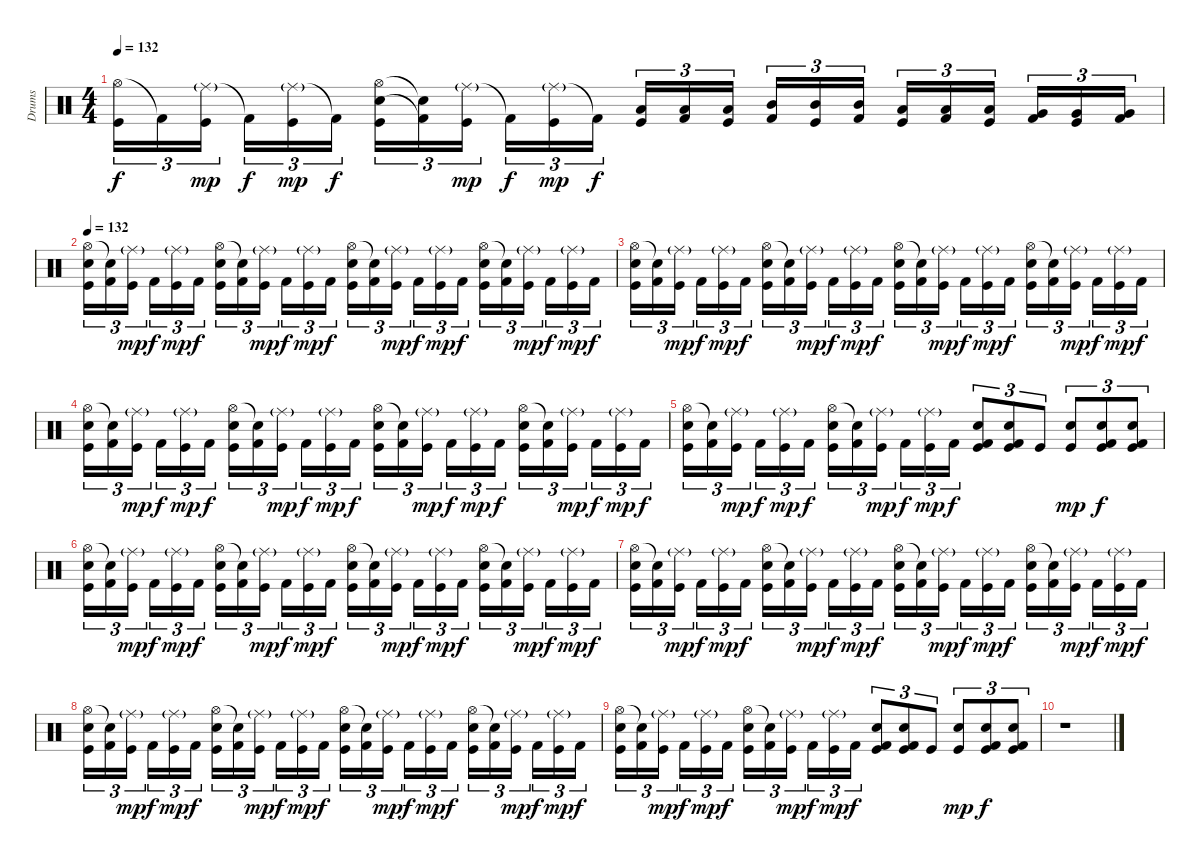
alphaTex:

\track ("Drums" "Drums") {instrument percussion}
\staff {score}
\articulation defaults
\ts (4 4)
\tempo 132
\clef neutral
\ks c
("Hi-Hat (open)" "Kick (hit)").16{tu (3 2) dy f} "Kick (hit) 2"{t}.16{tu (3 2)} ("Ride (middle)"{g} "Kick (hit)").16{tu (3 2) dy mp} "Kick (hit) 2"{t}.16{tu (3 2) dy f} ("Ride (middle)"{g} "Kick (hit)").16{tu (3 2) dy mp} "Kick (hit) 2"{t}.16{tu (3 2) dy f} ("Hi-Hat (open)" "Snare (hit) 2" "Kick (hit)").16{tu (3 2)} ("Snare (hit)"{t} "Kick (hit) 2"{t}).16{tu (3 2)} ("Ride (middle)"{g} "Kick (hit)").16{tu (3 2) dy mp} "Kick (hit) 2"{t}.16{tu (3 2) dy f} ("Ride (middle)"{g} "Kick (hit)").16{tu (3 2) dy mp} "Kick (hit) 2"{t}.16{tu (3 2) dy f} ("Low Floor Tom (hit)" "Kick (hit)").16{tu (3 2)} ("Low Floor Tom (hit)" "Kick (hit) 2").16{tu (3 2)} ("Low Floor Tom (hit)" "Kick (hit)").16{tu (3 2)} ("Mid Tom (hit)" "Kick (hit) 2").16{tu (3 2)} ("Mid Tom (hit)" "Kick (hit)").16{tu (3 2)} ("Mid Tom (hit)" "Kick (hit) 2").16{tu (3 2)} ("Low Tom (hit)" "Kick (hit)").16{tu (3 2)} ("Low Tom (hit)" "Kick (hit) 2").16{tu (3 2)} ("Low Tom (hit)" "Kick (hit)").16{tu (3 2)} ("Very Low Tom (hit)" "Kick (hit) 2").16{tu (3 2)} ("Very Low Tom (hit)" "Kick (hit)").16{tu (3 2)} ("Very Low Tom (hit)" "Kick (hit) 2").16{tu (3 2)} |
\tempo 132
("Hi-Hat (open)" "Snare (hit) 2" "Kick (hit)").16{tu (3 2)} ("Snare (hit)"{t} "Kick (hit) 2").16{tu (3 2)} ("Ride (middle)"{g} "Kick (hit)").16{tu (3 2) dy mp} "Kick (hit) 2".16{tu (3 2) dy f} ("Ride (middle)"{g} "Kick (hit)").16{tu (3 2) dy mp} "Kick (hit) 2".16{tu (3 2) dy f} ("Hi-Hat (open)" "Snare (hit) 2" "Kick (hit)").16{tu (3 2)} ("Snare (hit)"{t} "Kick (hit) 2").16{tu (3 2)} ("Ride (middle)"{g} "Kick (hit)").16{tu (3 2) dy mp} "Kick (hit) 2".16{tu (3 2) dy f} ("Ride (middle)"{g} "Kick (hit)").16{tu (3 2) dy mp} "Kick (hit) 2".16{tu (3 2) dy f} ("Hi-Hat (open)" "Snare (hit) 2" "Kick (hit)").16{tu (3 2)} ("Snare (hit)"{t} "Kick (hit) 2").16{tu (3 2)} ("Ride (middle)"{g} "Kick (hit)").16{tu (3 2) dy mp} "Kick (hit) 2".16{tu (3 2) dy f} ("Ride (middle)"{g} "Kick (hit)").16{tu (3 2) dy mp} "Kick (hit) 2".16{tu (3 2) dy f} ("Hi-Hat (open)" "Snare (hit) 2" "Kick (hit)").16{tu (3 2)} ("Snare (hit)"{t} "Kick (hit) 2").16{tu (3 2)} ("Ride (middle)"{g} "Kick (hit)").16{tu (3 2) dy mp} "Kick (hit) 2".16{tu (3 2) dy f} ("Ride (middle)"{g} "Kick (hit)").16{tu (3 2) dy mp} "Kick (hit) 2".16{tu (3 2) dy f} |
("Hi-Hat (open)" "Snare (hit) 2" "Kick (hit)").16{tu (3 2)} ("Snare (hit)"{t} "Kick (hit) 2").16{tu (3 2)} ("Ride (middle)"{g} "Kick (hit)").16{tu (3 2) dy mp} "Kick (hit) 2".16{tu (3 2) dy f} ("Ride (middle)"{g} "Kick (hit)").16{tu (3 2) dy mp} "Kick (hit) 2".16{tu (3 2) dy f} ("Hi-Hat (open)" "Snare (hit) 2" "Kick (hit)").16{tu (3 2)} ("Snare (hit)"{t} "Kick (hit) 2").16{tu (3 2)} ("Ride (middle)"{g} "Kick (hit)").16{tu (3 2) dy mp} "Kick (hit) 2".16{tu (3 2) dy f} ("Ride (middle)"{g} "Kick (hit)").16{tu (3 2) dy mp} "Kick (hit) 2".16{tu (3 2) dy f} ("Hi-Hat (open)" "Snare (hit) 2" "Kick (hit)").16{tu (3 2)} ("Snare (hit)"{t} "Kick (hit) 2").16{tu (3 2)} ("Ride (middle)"{g} "Kick (hit)").16{tu (3 2) dy mp} "Kick (hit) 2".16{tu (3 2) dy f} ("Ride (middle)"{g} "Kick (hit)").16{tu (3 2) dy mp} "Kick (hit) 2".16{tu (3 2) dy f} ("Hi-Hat (open)" "Snare (hit) 2" "Kick (hit)").16{tu (3 2)} ("Snare (hit)"{t} "Kick (hit) 2").16{tu (3 2)} ("Ride (middle)"{g} "Kick (hit)").16{tu (3 2) dy mp} "Kick (hit) 2".16{tu (3 2) dy f} ("Ride (middle)"{g} "Kick (hit)").16{tu (3 2) dy mp} "Kick (hit) 2".16{tu (3 2) dy f} |
("Hi-Hat (open)" "Snare (hit) 2" "Kick (hit)").16{tu (3 2)} ("Snare (hit)"{t} "Kick (hit) 2").16{tu (3 2)} ("Ride (middle)"{g} "Kick (hit)").16{tu (3 2) dy mp} "Kick (hit) 2".16{tu (3 2) dy f} ("Ride (middle)"{g} "Kick (hit)").16{tu (3 2) dy mp} "Kick (hit) 2".16{tu (3 2) dy f} ("Hi-Hat (open)" "Snare (hit) 2" "Kick (hit)").16{tu (3 2)} ("Snare (hit)"{t} "Kick (hit) 2").16{tu (3 2)} ("Ride (middle)"{g} "Kick (hit)").16{tu (3 2) dy mp} "Kick (hit) 2".16{tu (3 2) dy f} ("Ride (middle)"{g} "Kick (hit)").16{tu (3 2) dy mp} "Kick (hit) 2".16{tu (3 2) dy f} ("Hi-Hat (open)" "Snare (hit) 2" "Kick (hit)").16{tu (3 2)} ("Snare (hit)"{t} "Kick (hit) 2").16{tu (3 2)} ("Ride (middle)"{g} "Kick (hit)").16{tu (3 2) dy mp} "Kick (hit) 2".16{tu (3 2) dy f} ("Ride (middle)"{g} "Kick (hit)").16{tu (3 2) dy mp} "Kick (hit) 2".16{tu (3 2) dy f} ("Hi-Hat (open)" "Snare (hit) 2" "Kick (hit)").16{tu (3 2)} ("Snare (hit)"{t} "Kick (hit) 2").16{tu (3 2)} ("Ride (middle)"{g} "Kick (hit)").16{tu (3 2) dy mp} "Kick (hit) 2".16{tu (3 2) dy f} ("Ride (middle)"{g} "Kick (hit)").16{tu (3 2) dy mp} "Kick (hit) 2".16{tu (3 2) dy f} |
("Hi-Hat (open)" "Snare (hit) 2" "Kick (hit)").16{tu (3 2)} ("Snare (hit)"{t} "Kick (hit) 2").16{tu (3 2)} ("Ride (middle)"{g} "Kick (hit)").16{tu (3 2) dy mp} "Kick (hit) 2".16{tu (3 2) dy f} ("Ride (middle)"{g} "Kick (hit)").16{tu (3 2) dy mp} "Kick (hit) 2".16{tu (3 2) dy f} ("Hi-Hat (open)" "Snare (hit) 2" "Kick (hit)").16{tu (3 2)} ("Snare (hit)"{t} "Kick (hit) 2").16{tu (3 2)} ("Ride (middle)"{g} "Kick (hit)").16{tu (3 2) dy mp} "Kick (hit) 2".16{tu (3 2) dy f} ("Ride (middle)"{g} "Kick (hit)").16{tu (3 2) dy mp} "Kick (hit) 2".16{tu (3 2) dy f} ("Snare (hit) 2" "Kick (hit) 2" "Kick (hit)").8{tu (3 2)} ("Snare (hit) 2" "Kick (hit) 2" "Kick (hit)").8{tu (3 2)} "Kick (hit)".8{tu (3 2)} ("Snare (hit) 2" "Kick (hit)").8{tu (3 2) dy mp} ("Snare (hit) 2" "Kick (hit) 2" "Kick (hit)").8{tu (3 2) dy f} ("Snare (hit) 2" "Kick (hit) 2" "Kick (hit)").8{tu (3 2)} |
("Hi-Hat (open)" "Snare (hit) 2" "Kick (hit)").16{tu (3 2)} ("Snare (hit)"{t} "Kick (hit) 2").16{tu (3 2)} ("Ride (middle)"{g} "Kick (hit)").16{tu (3 2) dy mp} "Kick (hit) 2".16{tu (3 2) dy f} ("Ride (middle)"{g} "Kick (hit)").16{tu (3 2) dy mp} "Kick (hit) 2".16{tu (3 2) dy f} ("Hi-Hat (open)" "Snare (hit) 2" "Kick (hit)").16{tu (3 2)} ("Snare (hit)"{t} "Kick (hit) 2").16{tu (3 2)} ("Ride (middle)"{g} "Kick (hit)").16{tu (3 2) dy mp} "Kick (hit) 2".16{tu (3 2) dy f} ("Ride (middle)"{g} "Kick (hit)").16{tu (3 2) dy mp} "Kick (hit) 2".16{tu (3 2) dy f} ("Hi-Hat (open)" "Snare (hit) 2" "Kick (hit)").16{tu (3 2)} ("Snare (hit)"{t} "Kick (hit) 2").16{tu (3 2)} ("Ride (middle)"{g} "Kick (hit)").16{tu (3 2) dy mp} "Kick (hit) 2".16{tu (3 2) dy f} ("Ride (middle)"{g} "Kick (hit)").16{tu (3 2) dy mp} "Kick (hit) 2".16{tu (3 2) dy f} ("Hi-Hat (open)" "Snare (hit) 2" "Kick (hit)").16{tu (3 2)} ("Snare (hit)"{t} "Kick (hit) 2").16{tu (3 2)} ("Ride (middle)"{g} "Kick (hit)").16{tu (3 2) dy mp} "Kick (hit) 2".16{tu (3 2) dy f} ("Ride (middle)"{g} "Kick (hit)").16{tu (3 2) dy mp} "Kick (hit) 2".16{tu (3 2) dy f} |
("Hi-Hat (open)" "Snare (hit) 2" "Kick (hit)").16{tu (3 2)} ("Snare (hit)"{t} "Kick (hit) 2").16{tu (3 2)} ("Ride (middle)"{g} "Kick (hit)").16{tu (3 2) dy mp} "Kick (hit) 2".16{tu (3 2) dy f} ("Ride (middle)"{g} "Kick (hit)").16{tu (3 2) dy mp} "Kick (hit) 2".16{tu (3 2) dy f} ("Hi-Hat (open)" "Snare (hit) 2" "Kick (hit)").16{tu (3 2)} ("Snare (hit)"{t} "Kick (hit) 2").16{tu (3 2)} ("Ride (middle)"{g} "Kick (hit)").16{tu (3 2) dy mp} "Kick (hit) 2".16{tu (3 2) dy f} ("Ride (middle)"{g} "Kick (hit)").16{tu (3 2) dy mp} "Kick (hit) 2".16{tu (3 2) dy f} ("Hi-Hat (open)" "Snare (hit) 2" "Kick (hit)").16{tu (3 2)} ("Snare (hit)"{t} "Kick (hit) 2").16{tu (3 2)} ("Ride (middle)"{g} "Kick (hit)").16{tu (3 2) dy mp} "Kick (hit) 2".16{tu (3 2) dy f} ("Ride (middle)"{g} "Kick (hit)").16{tu (3 2) dy mp} "Kick (hit) 2".16{tu (3 2) dy f} ("Hi-Hat (open)" "Snare (hit) 2" "Kick (hit)").16{tu (3 2)} ("Snare (hit)"{t} "Kick (hit) 2").16{tu (3 2)} ("Ride (middle)"{g} "Kick (hit)").16{tu (3 2) dy mp} "Kick (hit) 2".16{tu (3 2) dy f} ("Ride (middle)"{g} "Kick (hit)").16{tu (3 2) dy mp} "Kick (hit) 2".16{tu (3 2) dy f} |
("Hi-Hat (open)" "Snare (hit) 2" "Kick (hit)").16{tu (3 2)} ("Snare (hit)"{t} "Kick (hit) 2").16{tu (3 2)} ("Ride (middle)"{g} "Kick (hit)").16{tu (3 2) dy mp} "Kick (hit) 2".16{tu (3 2) dy f} ("Ride (middle)"{g} "Kick (hit)").16{tu (3 2) dy mp} "Kick (hit) 2".16{tu (3 2) dy f} ("Hi-Hat (open)" "Snare (hit) 2" "Kick (hit)").16{tu (3 2)} ("Snare (hit)"{t} "Kick (hit) 2").16{tu (3 2)} ("Ride (middle)"{g} "Kick (hit)").16{tu (3 2) dy mp} "Kick (hit) 2".16{tu (3 2) dy f} ("Ride (middle)"{g} "Kick (hit)").16{tu (3 2) dy mp} "Kick (hit) 2".16{tu (3 2) dy f} ("Hi-Hat (open)" "Snare (hit) 2" "Kick (hit)").16{tu (3 2)} ("Snare (hit)"{t} "Kick (hit) 2").16{tu (3 2)} ("Ride (middle)"{g} "Kick (hit)").16{tu (3 2) dy mp} "Kick (hit) 2".16{tu (3 2) dy f} ("Ride (middle)"{g} "Kick (hit)").16{tu (3 2) dy mp} "Kick (hit) 2".16{tu (3 2) dy f} ("Hi-Hat (open)" "Snare (hit) 2" "Kick (hit)").16{tu (3 2)} ("Snare (hit)"{t} "Kick (hit) 2").16{tu (3 2)} ("Ride (middle)"{g} "Kick (hit)").16{tu (3 2) dy mp} "Kick (hit) 2".16{tu (3 2) dy f} ("Ride (middle)"{g} "Kick (hit)").16{tu (3 2) dy mp} "Kick (hit) 2".16{tu (3 2) dy f} |
("Hi-Hat (open)" "Snare (hit) 2" "Kick (hit)").16{tu (3 2)} ("Snare (hit)"{t} "Kick (hit) 2").16{tu (3 2)} ("Ride (middle)"{g} "Kick (hit)").16{tu (3 2) dy mp} "Kick (hit) 2".16{tu (3 2) dy f} ("Ride (middle)"{g} "Kick (hit)").16{tu (3 2) dy mp} "Kick (hit) 2".16{tu (3 2) dy f} ("Hi-Hat (open)" "Snare (hit) 2" "Kick (hit)").16{tu (3 2)} ("Snare (hit)"{t} "Kick (hit) 2").16{tu (3 2)} ("Ride (middle)"{g} "Kick (hit)").16{tu (3 2) dy mp} "Kick (hit) 2".16{tu (3 2) dy f} ("Ride (middle)"{g} "Kick (hit)").16{tu (3 2) dy mp} "Kick (hit) 2".16{tu (3 2) dy f} ("Snare (hit) 2" "Kick (hit) 2" "Kick (hit)").8{tu (3 2)} ("Snare (hit) 2" "Kick (hit) 2" "Kick (hit)").8{tu (3 2)} "Kick (hit)".8{tu (3 2)} ("Snare (hit) 2" "Kick (hit)").8{tu (3 2) dy mp} ("Snare (hit) 2" "Kick (hit) 2" "Kick (hit)").8{tu (3 2) dy f} ("Snare (hit) 2" "Kick (hit) 2" "Kick (hit)").8{tu (3 2)} |
r.1
